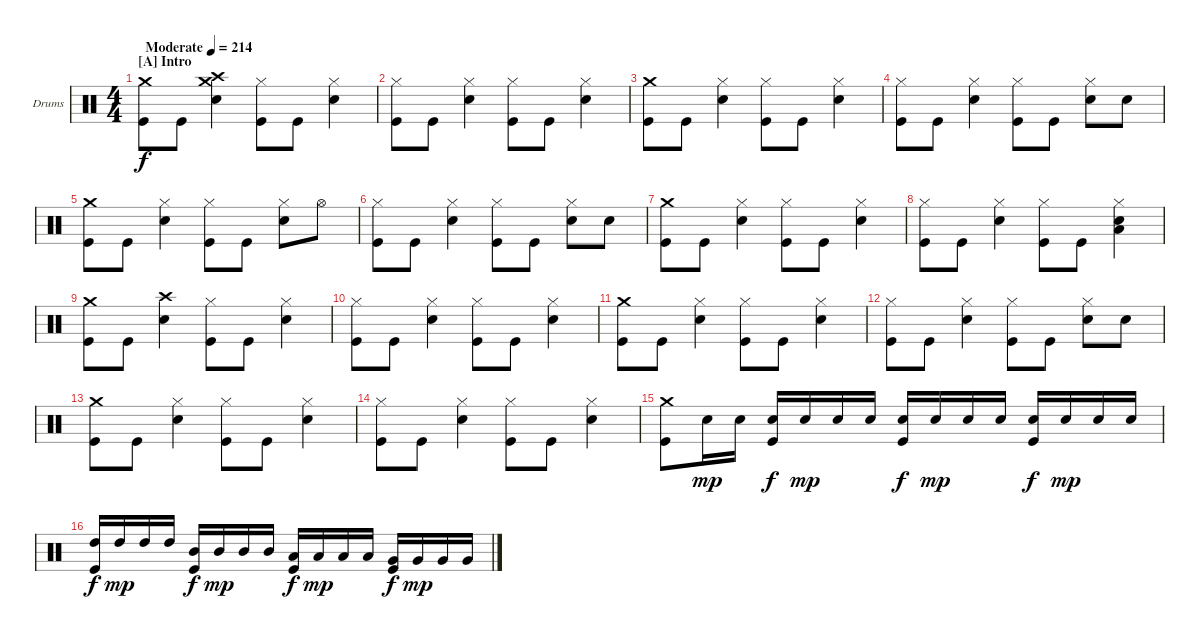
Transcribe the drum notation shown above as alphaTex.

\bracketExtendMode groupsimilarinstruments
\firstSystemTrackNameOrientation horizontal
\otherSystemsTrackNameOrientation horizontal
\track ("Drumkit" "Drums") {instrument percussion}
\staff {score}
\articulation defaults
\ts (4 4)
\beaming (8 2 2 2 2)
\section ("A" "Intro")
\tempo (214 "Moderate")
\clef neutral
\ks c
("Kick (hit)" "Crash medium (hit)").8{dy f} "Kick (hit)".8 ("Snare (hit) 2" "Crash high (hit)" "Crash medium (hit)").4 ("Hi-Hat (closed)" "Kick (hit)").8 "Kick (hit)".8 ("Snare (hit) 2" "Hi-Hat (closed)").4 |
("Hi-Hat (closed)" "Kick (hit)").8 "Kick (hit)".8 ("Snare (hit) 2" "Hi-Hat (closed)").4 ("Hi-Hat (closed)" "Kick (hit)").8 "Kick (hit)".8 ("Snare (hit) 2" "Hi-Hat (closed)").4 |
("Kick (hit)" "Crash medium (hit)").8 "Kick (hit)".8 ("Snare (hit) 2" "Hi-Hat (closed)").4 ("Hi-Hat (closed)" "Kick (hit)").8 "Kick (hit)".8 ("Snare (hit) 2" "Hi-Hat (closed)").4 |
("Hi-Hat (closed)" "Kick (hit)").8 "Kick (hit)".8 ("Snare (hit) 2" "Hi-Hat (closed)").4 ("Hi-Hat (closed)" "Kick (hit)").8 "Kick (hit)".8 ("Snare (hit) 2" "Hi-Hat (closed)").8 "Snare (hit) 2".8 |
("Kick (hit)" "Crash medium (hit)").8 "Kick (hit)".8 ("Snare (hit) 2" "Hi-Hat (closed)").4 ("Hi-Hat (closed)" "Kick (hit)").8 "Kick (hit)".8 ("Snare (hit) 2" "Hi-Hat (closed)").8 "Hi-Hat (open)".8 |
("Hi-Hat (closed)" "Kick (hit)").8 "Kick (hit)".8 ("Snare (hit) 2" "Hi-Hat (closed)").4 ("Hi-Hat (closed)" "Kick (hit)").8 "Kick (hit)".8 ("Snare (hit) 2" "Hi-Hat (closed)").8 "Snare (hit) 2".8 |
("Kick (hit)" "Crash medium (hit)").8 "Kick (hit)".8 ("Snare (hit) 2" "Hi-Hat (closed)").4 ("Hi-Hat (closed)" "Kick (hit)").8 "Kick (hit)".8 ("Snare (hit) 2" "Hi-Hat (closed)").4 |
("Hi-Hat (closed)" "Kick (hit)").8 "Kick (hit)".8 ("Snare (hit) 2" "Hi-Hat (closed)").4 ("Hi-Hat (closed)" "Kick (hit)").8 "Kick (hit)".8 ("Snare (hit) 2" "Hi-Hat (closed)" "Low Tom (hit)").4 |
("Kick (hit)" "Crash medium (hit)").8 "Kick (hit)".8 ("Snare (hit) 2" "Crash high (hit)").4 ("Hi-Hat (closed)" "Kick (hit)").8 "Kick (hit)".8 ("Snare (hit) 2" "Hi-Hat (closed)").4 |
("Hi-Hat (closed)" "Kick (hit)").8 "Kick (hit)".8 ("Snare (hit) 2" "Hi-Hat (closed)").4 ("Hi-Hat (closed)" "Kick (hit)").8 "Kick (hit)".8 ("Snare (hit) 2" "Hi-Hat (closed)").4 |
("Kick (hit)" "Crash medium (hit)").8 "Kick (hit)".8 ("Snare (hit) 2" "Hi-Hat (closed)").4 ("Hi-Hat (closed)" "Kick (hit)").8 "Kick (hit)".8 ("Snare (hit) 2" "Hi-Hat (closed)").4 |
("Hi-Hat (closed)" "Kick (hit)").8 "Kick (hit)".8 ("Snare (hit) 2" "Hi-Hat (closed)").4 ("Hi-Hat (closed)" "Kick (hit)").8 "Kick (hit)".8 ("Snare (hit) 2" "Hi-Hat (closed)").8 "Snare (hit) 2".8 |
("Kick (hit)" "Crash medium (hit)").8 "Kick (hit)".8 ("Snare (hit) 2" "Hi-Hat (closed)").4 ("Hi-Hat (closed)" "Kick (hit)").8 "Kick (hit)".8 ("Snare (hit) 2" "Hi-Hat (closed)").4 |
("Hi-Hat (closed)" "Kick (hit)").8 "Kick (hit)".8 ("Snare (hit) 2" "Hi-Hat (closed)").4 ("Hi-Hat (closed)" "Kick (hit)").8 "Kick (hit)".8 ("Snare (hit) 2" "Hi-Hat (closed)").4 |
("Kick (hit)" "Crash medium (hit)").8 "Snare (hit) 2".16{dy mp} "Snare (hit) 2".16 ("Snare (hit) 2" "Kick (hit)").16{dy f} "Snare (hit) 2".16{dy mp} "Snare (hit) 2".16 "Snare (hit) 2".16 ("Snare (hit) 2" "Kick (hit)").16{dy f} "Snare (hit) 2".16{dy mp} "Snare (hit) 2".16 "Snare (hit) 2".16 ("Snare (hit) 2" "Kick (hit)").16{dy f} "Snare (hit) 2".16{dy mp} "Snare (hit) 2".16 "Snare (hit) 2".16 |
("High Tom (hit)" "Kick (hit)").16{dy f} "High Tom (hit)".16{dy mp} "High Tom (hit)".16 "High Tom (hit)".16 ("Mid Tom (hit)" "Kick (hit)").16{dy f} "Mid Tom (hit)".16{dy mp} "Mid Tom (hit)".16 "Mid Tom (hit)".16 ("Low Tom (hit)" "Kick (hit)").16{dy f} "Low Tom (hit)".16{dy mp} "Low Tom (hit)".16 "Low Tom (hit)".16 ("Very Low Tom (hit)" "Kick (hit)").16{dy f} "Very Low Tom (hit)".16{dy mp} "Very Low Tom (hit)".16 "Very Low Tom (hit)".16
